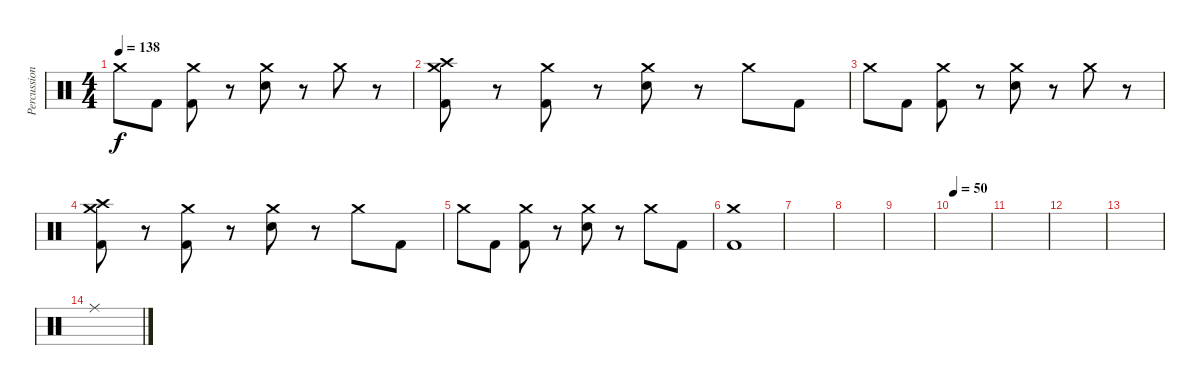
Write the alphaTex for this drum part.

\track ("Percussion" "Percussion") {instrument percussion}
\staff {score}
\articulation defaults
\ts (4 4)
\tempo 138
\clef neutral
\ks c "Crash medium (hit)".8{dy f} "Kick (hit) 2".8
("Crash medium (hit)" "Kick (hit) 2").8 r.8 ("Crash medium (hit)" "Electric Snare (hit)").8 r.8 "Crash medium (hit)".8 r.8 |
("Crash medium (hit)" "Crash high (hit)" "Kick (hit) 2").8 r.8 ("Crash medium (hit)" "Kick (hit) 2").8 r.8 ("Crash medium (hit)" "Electric Snare (hit)").8 r.8 "Crash medium (hit)".8 "Kick (hit) 2".8 |
"Crash medium (hit)".8 "Kick (hit) 2".8 ("Crash medium (hit)" "Kick (hit) 2").8 r.8 ("Crash medium (hit)" "Electric Snare (hit)").8 r.8 "Crash medium (hit)".8 r.8 |
("Crash medium (hit)" "Crash high (hit)" "Kick (hit) 2").8 r.8 ("Crash medium (hit)" "Kick (hit) 2").8 r.8 ("Crash medium (hit)" "Electric Snare (hit)").8 r.8 "Crash medium (hit)".8 "Kick (hit) 2".8 |
"Crash medium (hit)".8 "Kick (hit) 2".8 ("Crash medium (hit)" "Kick (hit) 2").8 r.8 ("Crash medium (hit)" "Electric Snare (hit)").8 r.8 "Crash medium (hit)".8 "Kick (hit) 2".8 |
("Crash medium (hit)" "Kick (hit) 2").1 |
|
|
|
\tempo 50
|
|
|
|
"Ride (middle)".1
